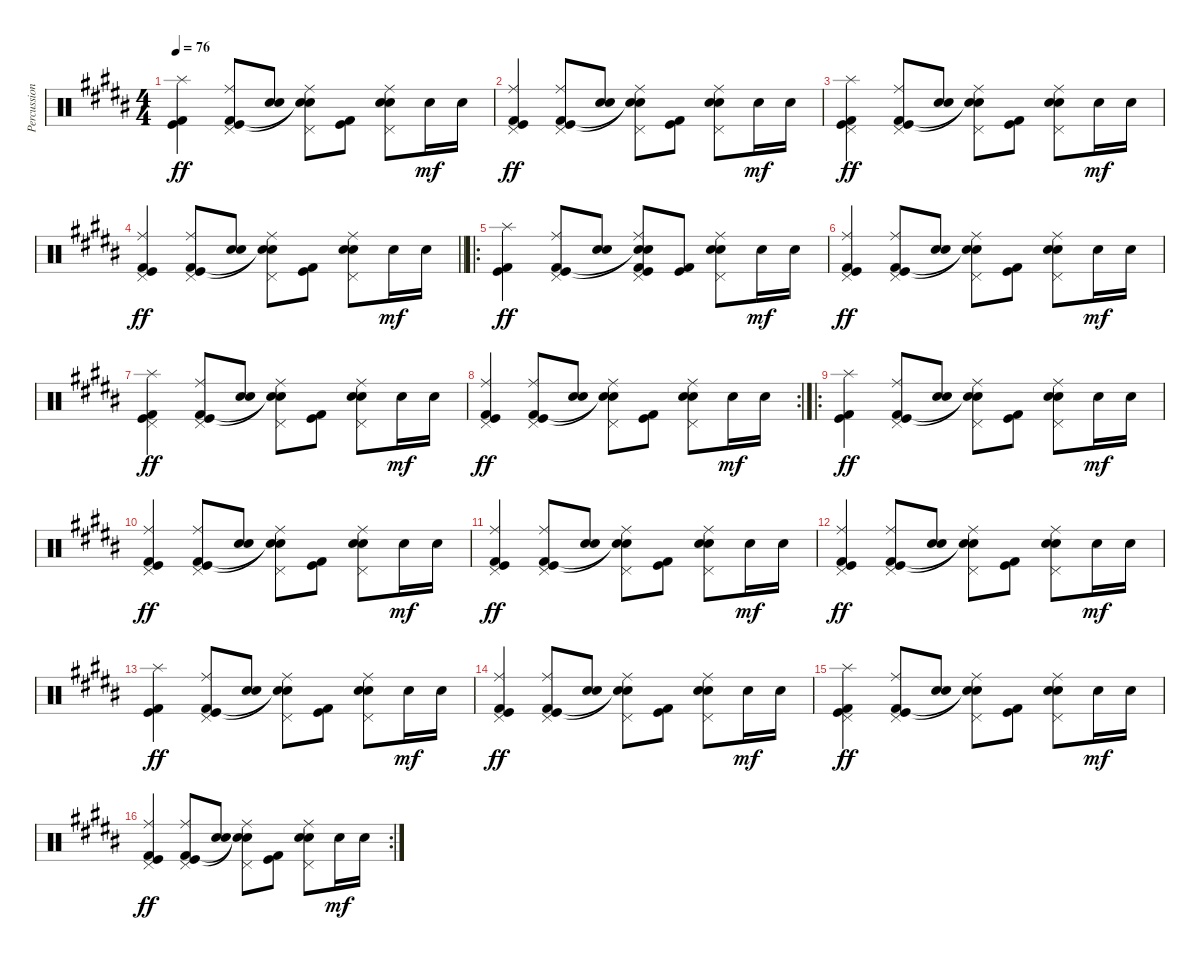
\track ("Percussion" "Percussion") {instrument percussion}
\staff {score}
\articulation defaults
\ts (4 4)
\tempo 76
\clef neutral
\ks b
("Splash (hit)" "Kick (hit)" "Kick (hit) 2").4{dy ff} ("Ride (middle)" "Pedal Hi-Hat (hit)" "Kick (hit)" "Kick (hit) 2").8 ("Snare (hit) 2" "Snare (hit) 2").8 ("Ride (middle)" "Pedal Hi-Hat (hit)" "Snare (hit) 2"{t} "Snare (hit) 2"{t}).8 ("Kick (hit)" "Kick (hit) 2").8 ("Ride (middle)" "Pedal Hi-Hat (hit)" "Snare (hit) 2" "Snare (hit) 2").8 "Snare (hit) 2".16{dy mf} "Snare (hit) 2".16 |
("Ride (middle)" "Pedal Hi-Hat (hit)" "Kick (hit)" "Kick (hit) 2").4{dy ff} ("Ride (middle)" "Pedal Hi-Hat (hit)" "Kick (hit)" "Kick (hit) 2").8 ("Snare (hit) 2" "Snare (hit) 2").8 ("Ride (middle)" "Pedal Hi-Hat (hit)" "Snare (hit) 2"{t} "Snare (hit) 2"{t}).8 ("Kick (hit)" "Kick (hit) 2").8 ("Ride (middle)" "Pedal Hi-Hat (hit)" "Snare (hit) 2" "Snare (hit) 2").8 "Snare (hit) 2".16{dy mf} "Snare (hit) 2".16 |
("Splash (hit)" "Pedal Hi-Hat (hit)" "Kick (hit)" "Kick (hit) 2").4{dy ff} ("Ride (middle)" "Pedal Hi-Hat (hit)" "Kick (hit)" "Kick (hit) 2").8 ("Snare (hit) 2" "Snare (hit) 2").8 ("Ride (middle)" "Pedal Hi-Hat (hit)" "Snare (hit) 2"{t} "Snare (hit) 2"{t}).8 ("Kick (hit)" "Kick (hit) 2").8 ("Ride (middle)" "Pedal Hi-Hat (hit)" "Snare (hit) 2" "Snare (hit) 2").8 "Snare (hit) 2".16{dy mf} "Snare (hit) 2".16 |
\barLineRight lightlight
("Ride (middle)" "Pedal Hi-Hat (hit)" "Kick (hit)" "Kick (hit) 2").4{dy ff} ("Ride (middle)" "Pedal Hi-Hat (hit)" "Kick (hit)" "Kick (hit) 2").8 ("Snare (hit) 2" "Snare (hit) 2").8 ("Ride (middle)" "Pedal Hi-Hat (hit)" "Snare (hit) 2"{t} "Snare (hit) 2"{t}).8 ("Kick (hit)" "Kick (hit) 2").8 ("Ride (middle)" "Pedal Hi-Hat (hit)" "Snare (hit) 2" "Snare (hit) 2").8 "Snare (hit) 2".16{dy mf} "Snare (hit) 2".16 |
\ro
("Splash (hit)" "Kick (hit)" "Kick (hit) 2").4{dy ff} ("Ride (middle)" "Pedal Hi-Hat (hit)" "Kick (hit)" "Kick (hit) 2").8 ("Snare (hit) 2" "Snare (hit) 2").8 ("Ride (middle)" "Pedal Hi-Hat (hit)" "Snare (hit) 2"{t} "Snare (hit) 2"{t} "Kick (hit)" "Kick (hit) 2").8 ("Kick (hit)" "Kick (hit) 2").8 ("Ride (middle)" "Pedal Hi-Hat (hit)" "Snare (hit) 2" "Snare (hit) 2").8 "Snare (hit) 2".16{dy mf} "Snare (hit) 2".16 |
("Ride (middle)" "Pedal Hi-Hat (hit)" "Kick (hit)" "Kick (hit) 2").4{dy ff} ("Ride (middle)" "Pedal Hi-Hat (hit)" "Kick (hit)" "Kick (hit) 2").8 ("Snare (hit) 2" "Snare (hit) 2").8 ("Ride (middle)" "Pedal Hi-Hat (hit)" "Snare (hit) 2"{t} "Snare (hit) 2"{t}).8 ("Kick (hit)" "Kick (hit) 2").8 ("Ride (middle)" "Pedal Hi-Hat (hit)" "Snare (hit) 2" "Snare (hit) 2").8 "Snare (hit) 2".16{dy mf} "Snare (hit) 2".16 |
("Splash (hit)" "Pedal Hi-Hat (hit)" "Kick (hit)" "Kick (hit) 2").4{dy ff} ("Ride (middle)" "Pedal Hi-Hat (hit)" "Kick (hit)" "Kick (hit) 2").8 ("Snare (hit) 2" "Snare (hit) 2").8 ("Ride (middle)" "Pedal Hi-Hat (hit)" "Snare (hit) 2"{t} "Snare (hit) 2"{t}).8 ("Kick (hit)" "Kick (hit) 2").8 ("Ride (middle)" "Pedal Hi-Hat (hit)" "Snare (hit) 2" "Snare (hit) 2").8 "Snare (hit) 2".16{dy mf} "Snare (hit) 2".16 |
\rc 2
("Ride (middle)" "Pedal Hi-Hat (hit)" "Kick (hit)" "Kick (hit) 2").4{dy ff} ("Ride (middle)" "Pedal Hi-Hat (hit)" "Kick (hit)" "Kick (hit) 2").8 ("Snare (hit) 2" "Snare (hit) 2").8 ("Ride (middle)" "Pedal Hi-Hat (hit)" "Snare (hit) 2"{t} "Snare (hit) 2"{t}).8 ("Kick (hit)" "Kick (hit) 2").8 ("Ride (middle)" "Pedal Hi-Hat (hit)" "Snare (hit) 2" "Snare (hit) 2").8 "Snare (hit) 2".16{dy mf} "Snare (hit) 2".16 |
\ro
("Splash (hit)" "Kick (hit)" "Kick (hit) 2").4{dy ff} ("Ride (middle)" "Pedal Hi-Hat (hit)" "Kick (hit)" "Kick (hit) 2").8 ("Snare (hit) 2" "Snare (hit) 2").8 ("Ride (middle)" "Pedal Hi-Hat (hit)" "Snare (hit) 2"{t} "Snare (hit) 2"{t}).8 ("Kick (hit)" "Kick (hit) 2").8 ("Ride (middle)" "Pedal Hi-Hat (hit)" "Snare (hit) 2" "Snare (hit) 2").8 "Snare (hit) 2".16{dy mf} "Snare (hit) 2".16 |
("Ride (middle)" "Pedal Hi-Hat (hit)" "Kick (hit)" "Kick (hit) 2").4{dy ff} ("Ride (middle)" "Pedal Hi-Hat (hit)" "Kick (hit)" "Kick (hit) 2").8 ("Snare (hit) 2" "Snare (hit) 2").8 ("Ride (middle)" "Pedal Hi-Hat (hit)" "Snare (hit) 2"{t} "Snare (hit) 2"{t}).8 ("Kick (hit)" "Kick (hit) 2").8 ("Ride (middle)" "Pedal Hi-Hat (hit)" "Snare (hit) 2" "Snare (hit) 2").8 "Snare (hit) 2".16{dy mf} "Snare (hit) 2".16 |
("Ride (middle)" "Pedal Hi-Hat (hit)" "Kick (hit)" "Kick (hit) 2").4{dy ff} ("Ride (middle)" "Pedal Hi-Hat (hit)" "Kick (hit)" "Kick (hit) 2").8 ("Snare (hit) 2" "Snare (hit) 2").8 ("Ride (middle)" "Pedal Hi-Hat (hit)" "Snare (hit) 2"{t} "Snare (hit) 2"{t}).8 ("Kick (hit)" "Kick (hit) 2").8 ("Ride (middle)" "Pedal Hi-Hat (hit)" "Snare (hit) 2" "Snare (hit) 2").8 "Snare (hit) 2".16{dy mf} "Snare (hit) 2".16 |
("Ride (middle)" "Pedal Hi-Hat (hit)" "Kick (hit)" "Kick (hit) 2").4{dy ff} ("Ride (middle)" "Pedal Hi-Hat (hit)" "Kick (hit)" "Kick (hit) 2").8 ("Snare (hit) 2" "Snare (hit) 2").8 ("Ride (middle)" "Pedal Hi-Hat (hit)" "Snare (hit) 2"{t} "Snare (hit) 2"{t}).8 ("Kick (hit)" "Kick (hit) 2").8 ("Ride (middle)" "Pedal Hi-Hat (hit)" "Snare (hit) 2" "Snare (hit) 2").8 "Snare (hit) 2".16{dy mf} "Snare (hit) 2".16 |
("Splash (hit)" "Kick (hit)" "Kick (hit) 2").4{dy ff} ("Ride (middle)" "Pedal Hi-Hat (hit)" "Kick (hit)" "Kick (hit) 2").8 ("Snare (hit) 2" "Snare (hit) 2").8 ("Ride (middle)" "Pedal Hi-Hat (hit)" "Snare (hit) 2"{t} "Snare (hit) 2"{t}).8 ("Kick (hit)" "Kick (hit) 2").8 ("Ride (middle)" "Pedal Hi-Hat (hit)" "Snare (hit) 2" "Snare (hit) 2").8 "Snare (hit) 2".16{dy mf} "Snare (hit) 2".16 |
("Ride (middle)" "Pedal Hi-Hat (hit)" "Kick (hit)" "Kick (hit) 2").4{dy ff} ("Ride (middle)" "Pedal Hi-Hat (hit)" "Kick (hit)" "Kick (hit) 2").8 ("Snare (hit) 2" "Snare (hit) 2").8 ("Ride (middle)" "Pedal Hi-Hat (hit)" "Snare (hit) 2"{t} "Snare (hit) 2"{t}).8 ("Kick (hit)" "Kick (hit) 2").8 ("Ride (middle)" "Pedal Hi-Hat (hit)" "Snare (hit) 2" "Snare (hit) 2").8 "Snare (hit) 2".16{dy mf} "Snare (hit) 2".16 |
("Splash (hit)" "Pedal Hi-Hat (hit)" "Kick (hit)" "Kick (hit) 2").4{dy ff} ("Ride (middle)" "Pedal Hi-Hat (hit)" "Kick (hit)" "Kick (hit) 2").8 ("Snare (hit) 2" "Snare (hit) 2").8 ("Ride (middle)" "Pedal Hi-Hat (hit)" "Snare (hit) 2"{t} "Snare (hit) 2"{t}).8 ("Kick (hit)" "Kick (hit) 2").8 ("Ride (middle)" "Pedal Hi-Hat (hit)" "Snare (hit) 2" "Snare (hit) 2").8 "Snare (hit) 2".16{dy mf} "Snare (hit) 2".16 |
\rc 2
("Ride (middle)" "Pedal Hi-Hat (hit)" "Kick (hit)" "Kick (hit) 2").4{dy ff} ("Ride (middle)" "Pedal Hi-Hat (hit)" "Kick (hit)" "Kick (hit) 2").8 ("Snare (hit) 2" "Snare (hit) 2").8 ("Ride (middle)" "Pedal Hi-Hat (hit)" "Snare (hit) 2"{t} "Snare (hit) 2"{t}).8 ("Kick (hit)" "Kick (hit) 2").8 ("Ride (middle)" "Pedal Hi-Hat (hit)" "Snare (hit) 2" "Snare (hit) 2").8 "Snare (hit) 2".16{dy mf} "Snare (hit) 2".16
